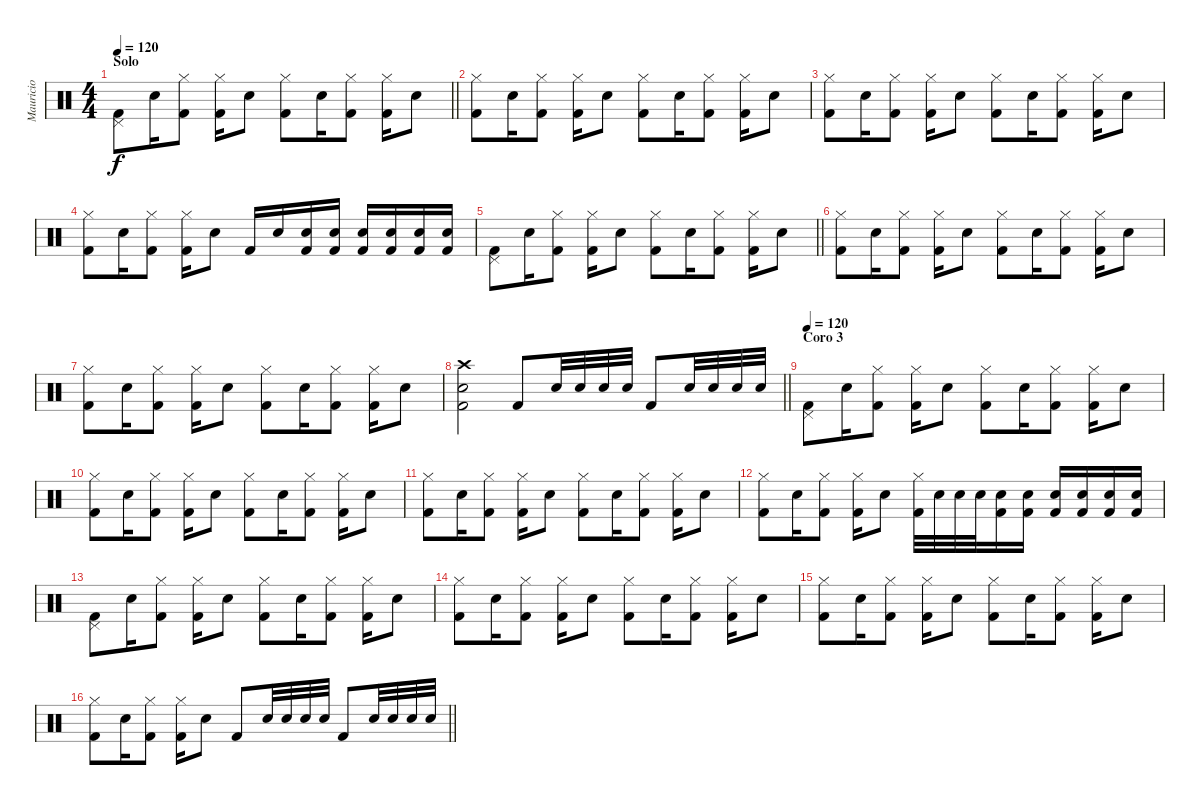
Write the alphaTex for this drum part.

\track ("Mauricio" "Mauricio") {instrument percussion}
\staff {score}
\articulation defaults
\ts (4 4)
\section ("" "Solo")
\tempo 120
\clef neutral
\barLineRight lightlight
\ks c
("Pedal Hi-Hat (hit)" "Kick (hit) 2").8{dy f} "Electric Snare (hit)".16 ("Hi-Hat (closed)" "Kick (hit) 2").8 ("Hi-Hat (closed)" "Kick (hit) 2").16 "Electric Snare (hit)".8 ("Hi-Hat (closed)" "Kick (hit) 2").8 "Electric Snare (hit)".16 ("Hi-Hat (closed)" "Kick (hit) 2").8 ("Hi-Hat (closed)" "Kick (hit) 2").16 "Electric Snare (hit)".8 |
("Hi-Hat (closed)" "Kick (hit) 2").8 "Electric Snare (hit)".16 ("Hi-Hat (closed)" "Kick (hit) 2").8 ("Hi-Hat (closed)" "Kick (hit) 2").16 "Electric Snare (hit)".8 ("Hi-Hat (closed)" "Kick (hit) 2").8 "Electric Snare (hit)".16 ("Hi-Hat (closed)" "Kick (hit) 2").8 ("Hi-Hat (closed)" "Kick (hit) 2").16 "Electric Snare (hit)".8 |
("Hi-Hat (closed)" "Kick (hit) 2").8 "Electric Snare (hit)".16 ("Hi-Hat (closed)" "Kick (hit) 2").8 ("Hi-Hat (closed)" "Kick (hit) 2").16 "Electric Snare (hit)".8 ("Hi-Hat (closed)" "Kick (hit) 2").8 "Electric Snare (hit)".16 ("Hi-Hat (closed)" "Kick (hit) 2").8 ("Hi-Hat (closed)" "Kick (hit) 2").16 "Electric Snare (hit)".8 |
("Hi-Hat (closed)" "Kick (hit) 2").8 "Electric Snare (hit)".16 ("Hi-Hat (closed)" "Kick (hit) 2").8 ("Hi-Hat (closed)" "Kick (hit) 2").16 "Electric Snare (hit)".8 "Kick (hit) 2".16 "Electric Snare (hit)".16 ("Kick (hit) 2" "Electric Snare (hit)").16 ("Kick (hit) 2" "Electric Snare (hit)").16 ("Kick (hit) 2" "Electric Snare (hit)").16 ("Kick (hit) 2" "Electric Snare (hit)").16 ("Kick (hit) 2" "Electric Snare (hit)").16 ("Kick (hit) 2" "Electric Snare (hit)").16 |
\barLineRight lightlight
("Pedal Hi-Hat (hit)" "Kick (hit) 2").8 "Electric Snare (hit)".16 ("Hi-Hat (closed)" "Kick (hit) 2").8 ("Hi-Hat (closed)" "Kick (hit) 2").16 "Electric Snare (hit)".8 ("Hi-Hat (closed)" "Kick (hit) 2").8 "Electric Snare (hit)".16 ("Hi-Hat (closed)" "Kick (hit) 2").8 ("Hi-Hat (closed)" "Kick (hit) 2").16 "Electric Snare (hit)".8 |
("Hi-Hat (closed)" "Kick (hit) 2").8 "Electric Snare (hit)".16 ("Hi-Hat (closed)" "Kick (hit) 2").8 ("Hi-Hat (closed)" "Kick (hit) 2").16 "Electric Snare (hit)".8 ("Hi-Hat (closed)" "Kick (hit) 2").8 "Electric Snare (hit)".16 ("Hi-Hat (closed)" "Kick (hit) 2").8 ("Hi-Hat (closed)" "Kick (hit) 2").16 "Electric Snare (hit)".8 |
("Hi-Hat (closed)" "Kick (hit) 2").8 "Electric Snare (hit)".16 ("Hi-Hat (closed)" "Kick (hit) 2").8 ("Hi-Hat (closed)" "Kick (hit) 2").16 "Electric Snare (hit)".8 ("Hi-Hat (closed)" "Kick (hit) 2").8 "Electric Snare (hit)".16 ("Hi-Hat (closed)" "Kick (hit) 2").8 ("Hi-Hat (closed)" "Kick (hit) 2").16 "Electric Snare (hit)".8 |
\barLineRight lightlight
("Crash high (hit)" "Kick (hit) 2" "Electric Snare (hit)").2 "Kick (hit) 2".8 "Electric Snare (hit)".32 "Electric Snare (hit)".32 "Electric Snare (hit)".32 "Electric Snare (hit)".32 "Kick (hit) 2".8 "Electric Snare (hit)".32 "Electric Snare (hit)".32 "Electric Snare (hit)".32 "Electric Snare (hit)".32 |
\section ("" "Coro 3")
\tempo 120
("Pedal Hi-Hat (hit)" "Kick (hit) 2").8 "Electric Snare (hit)".16 ("Hi-Hat (closed)" "Kick (hit) 2").8 ("Hi-Hat (closed)" "Kick (hit) 2").16 "Electric Snare (hit)".8 ("Hi-Hat (closed)" "Kick (hit) 2").8 "Electric Snare (hit)".16 ("Hi-Hat (closed)" "Kick (hit) 2").8 ("Hi-Hat (closed)" "Kick (hit) 2").16 "Electric Snare (hit)".8 |
("Hi-Hat (closed)" "Kick (hit) 2").8 "Electric Snare (hit)".16 ("Hi-Hat (closed)" "Kick (hit) 2").8 ("Hi-Hat (closed)" "Kick (hit) 2").16 "Electric Snare (hit)".8 ("Hi-Hat (closed)" "Kick (hit) 2").8 "Electric Snare (hit)".16 ("Hi-Hat (closed)" "Kick (hit) 2").8 ("Hi-Hat (closed)" "Kick (hit) 2").16 "Electric Snare (hit)".8 |
("Hi-Hat (closed)" "Kick (hit) 2").8 "Electric Snare (hit)".16 ("Hi-Hat (closed)" "Kick (hit) 2").8 ("Hi-Hat (closed)" "Kick (hit) 2").16 "Electric Snare (hit)".8 ("Hi-Hat (closed)" "Kick (hit) 2").8 "Electric Snare (hit)".16 ("Hi-Hat (closed)" "Kick (hit) 2").8 ("Hi-Hat (closed)" "Kick (hit) 2").16 "Electric Snare (hit)".8 |
("Hi-Hat (closed)" "Kick (hit) 2").8 "Electric Snare (hit)".16 ("Hi-Hat (closed)" "Kick (hit) 2").8 ("Hi-Hat (closed)" "Kick (hit) 2").16 "Electric Snare (hit)".8 ("Hi-Hat (closed)" "Kick (hit) 2").32 "Electric Snare (hit)".32 "Electric Snare (hit)".32 "Electric Snare (hit)".32 ("Kick (hit) 2" "Electric Snare (hit)").16 ("Kick (hit) 2" "Electric Snare (hit)").16 ("Kick (hit) 2" "Electric Snare (hit)").16 ("Kick (hit) 2" "Electric Snare (hit)").16 ("Kick (hit) 2" "Electric Snare (hit)").16 ("Kick (hit) 2" "Electric Snare (hit)").16 |
("Pedal Hi-Hat (hit)" "Kick (hit) 2").8 "Electric Snare (hit)".16 ("Hi-Hat (closed)" "Kick (hit) 2").8 ("Hi-Hat (closed)" "Kick (hit) 2").16 "Electric Snare (hit)".8 ("Hi-Hat (closed)" "Kick (hit) 2").8 "Electric Snare (hit)".16 ("Hi-Hat (closed)" "Kick (hit) 2").8 ("Hi-Hat (closed)" "Kick (hit) 2").16 "Electric Snare (hit)".8 |
("Hi-Hat (closed)" "Kick (hit) 2").8 "Electric Snare (hit)".16 ("Hi-Hat (closed)" "Kick (hit) 2").8 ("Hi-Hat (closed)" "Kick (hit) 2").16 "Electric Snare (hit)".8 ("Hi-Hat (closed)" "Kick (hit) 2").8 "Electric Snare (hit)".16 ("Hi-Hat (closed)" "Kick (hit) 2").8 ("Hi-Hat (closed)" "Kick (hit) 2").16 "Electric Snare (hit)".8 |
("Hi-Hat (closed)" "Kick (hit) 2").8 "Electric Snare (hit)".16 ("Hi-Hat (closed)" "Kick (hit) 2").8 ("Hi-Hat (closed)" "Kick (hit) 2").16 "Electric Snare (hit)".8 ("Hi-Hat (closed)" "Kick (hit) 2").8 "Electric Snare (hit)".16 ("Hi-Hat (closed)" "Kick (hit) 2").8 ("Hi-Hat (closed)" "Kick (hit) 2").16 "Electric Snare (hit)".8 |
\barLineRight lightlight
("Hi-Hat (closed)" "Kick (hit) 2").8 "Electric Snare (hit)".16 ("Hi-Hat (closed)" "Kick (hit) 2").8 ("Hi-Hat (closed)" "Kick (hit) 2").16 "Electric Snare (hit)".8 "Kick (hit) 2".8 "Electric Snare (hit)".32 "Electric Snare (hit)".32 "Electric Snare (hit)".32 "Electric Snare (hit)".32 "Kick (hit) 2".8 "Electric Snare (hit)".32 "Electric Snare (hit)".32 "Electric Snare (hit)".32 "Electric Snare (hit)".32
